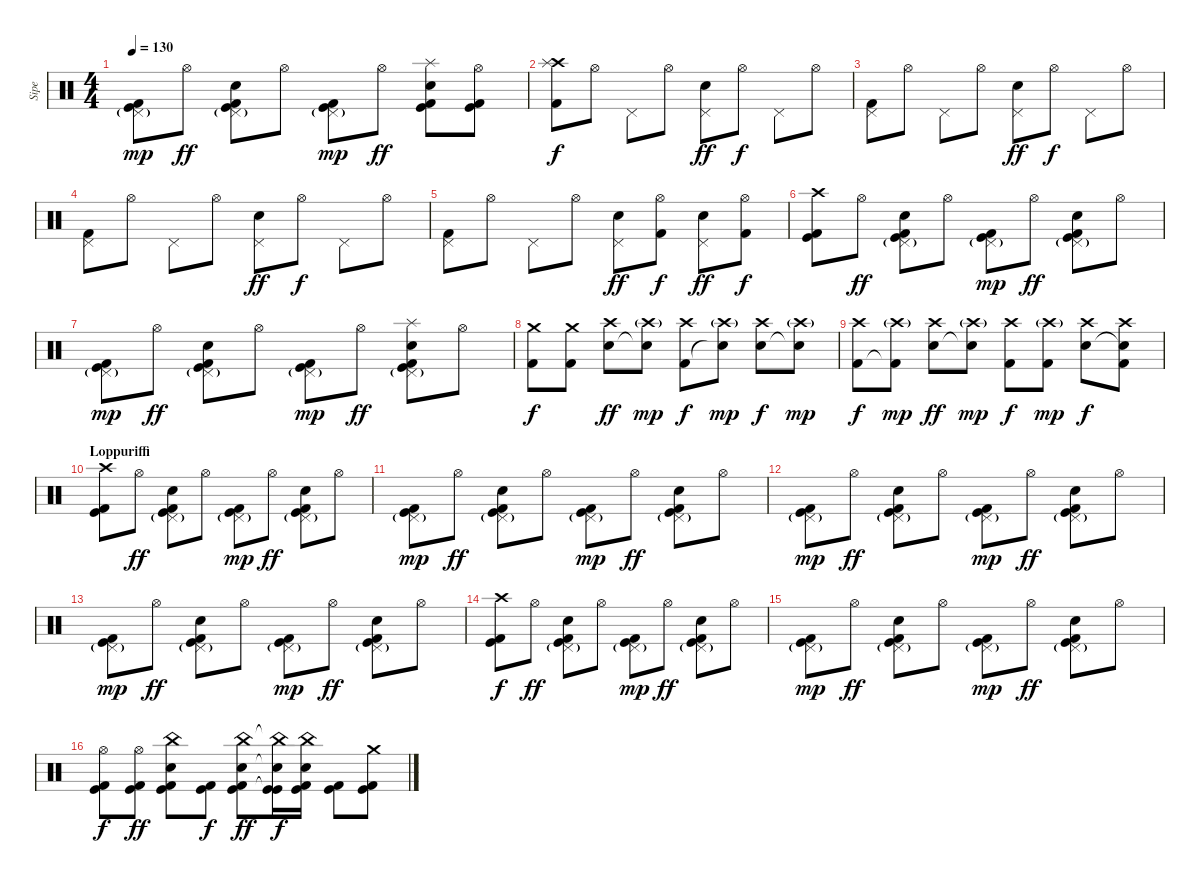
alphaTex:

\track ("Sipe" "Sipe") {instrument percussion}
\staff {score}
\articulation defaults
\ts (4 4)
\tempo 130
\clef neutral
\ks c
("Pedal Hi-Hat (hit)"{g} "Kick (hit)" "Kick (hit) 2").8{dy mp} "Hi-Hat (open)".8{dy ff} ("Pedal Hi-Hat (hit)"{g} "Electric Snare (hit)" "Kick (hit)" "Kick (hit) 2").8 "Hi-Hat (open)".8 ("Pedal Hi-Hat (hit)"{g} "Kick (hit)" "Kick (hit) 2").8{dy mp} "Hi-Hat (open)".8{dy ff} ("Splash (hit)" "Electric Snare (hit)" "Kick (hit)" "Kick (hit) 2").8 ("Hi-Hat (open)" "Kick (hit)" "Kick (hit) 2").8 |
("Crash high (hit)" "Splash (hit)" "Kick (hit) 2").8{dy f} "Hi-Hat (open)".8 "Pedal Hi-Hat (hit)".8 "Hi-Hat (open)".8 ("Pedal Hi-Hat (hit)" "Electric Snare (hit)").8{dy ff} "Hi-Hat (open)".8{dy f} "Pedal Hi-Hat (hit)".8 "Hi-Hat (open)".8 |
("Pedal Hi-Hat (hit)" "Kick (hit) 2").8 "Hi-Hat (open)".8 "Pedal Hi-Hat (hit)".8 "Hi-Hat (open)".8 ("Pedal Hi-Hat (hit)" "Electric Snare (hit)").8{dy ff} "Hi-Hat (open)".8{dy f} "Pedal Hi-Hat (hit)".8 "Hi-Hat (open)".8 |
("Pedal Hi-Hat (hit)" "Kick (hit) 2").8 "Hi-Hat (open)".8 "Pedal Hi-Hat (hit)".8 "Hi-Hat (open)".8 ("Pedal Hi-Hat (hit)" "Electric Snare (hit)").8{dy ff} "Hi-Hat (open)".8{dy f} "Pedal Hi-Hat (hit)".8 "Hi-Hat (open)".8 |
("Pedal Hi-Hat (hit)" "Kick (hit) 2").8 "Hi-Hat (open)".8 "Pedal Hi-Hat (hit)".8 "Hi-Hat (open)".8 ("Pedal Hi-Hat (hit)" "Electric Snare (hit)").8{dy ff} ("Hi-Hat (open)" "Kick (hit) 2").8{dy f} ("Pedal Hi-Hat (hit)" "Electric Snare (hit)").8{dy ff} ("Hi-Hat (open)" "Kick (hit) 2").8{dy f} |
("Crash high (hit)" "Kick (hit)" "Kick (hit) 2").8 "Hi-Hat (open)".8{dy ff} ("Pedal Hi-Hat (hit)"{g} "Electric Snare (hit)" "Kick (hit)" "Kick (hit) 2").8 "Hi-Hat (open)".8 ("Pedal Hi-Hat (hit)"{g} "Kick (hit)" "Kick (hit) 2").8{dy mp} "Hi-Hat (open)".8{dy ff} ("Pedal Hi-Hat (hit)"{g} "Electric Snare (hit)" "Kick (hit)" "Kick (hit) 2").8 "Hi-Hat (open)".8 |
("Pedal Hi-Hat (hit)"{g} "Kick (hit)" "Kick (hit) 2").8{dy mp} "Hi-Hat (open)".8{dy ff} ("Pedal Hi-Hat (hit)"{g} "Electric Snare (hit)" "Kick (hit)" "Kick (hit) 2").8 "Hi-Hat (open)".8 ("Pedal Hi-Hat (hit)"{g} "Kick (hit)" "Kick (hit) 2").8{dy mp} "Hi-Hat (open)".8{dy ff} ("Splash (hit)" "Pedal Hi-Hat (hit)"{g} "Electric Snare (hit)" "Kick (hit)" "Kick (hit) 2").8 "Hi-Hat (open)".8 |
("Crash medium (hit)" "Kick (hit) 2").8{dy f} ("Crash medium (hit)" "Kick (hit) 2").8 ("Crash high (hit)" "Electric Snare (hit)").8{dy ff} ("Crash high (hit)"{g} "Snare (hit)"{t}).8{dy mp} ("Crash high (hit)" "Kick (hit) 2").8{dy f} ("Crash high (hit)"{g} "Snare (hit)"{t}).8{dy mp} ("Crash high (hit)" "Electric Snare (hit)").8{dy f} ("Crash high (hit)"{g} "Snare (hit)"{t}).8{dy mp} |
("Crash high (hit)" "Kick (hit) 2").8{dy f} ("Crash high (hit)"{g} "Kick (hit) 2"{t}).8{dy mp} ("Crash high (hit)" "Electric Snare (hit)").8{dy ff} ("Crash high (hit)"{g} "Snare (hit)"{t}).8{dy mp} ("Crash high (hit)" "Kick (hit) 2").8{dy f} ("Crash high (hit)"{g} "Kick (hit) 2").8{dy mp} ("Crash high (hit)" "Electric Snare (hit)").8{dy f} ("Crash high (hit)" "Snare (hit)"{t} "Kick (hit) 2").8 |
\section ("" "Loppuriffi")
("Crash high (hit)" "Kick (hit)" "Kick (hit) 2").8 "Hi-Hat (open)".8{dy ff} ("Pedal Hi-Hat (hit)"{g} "Electric Snare (hit)" "Kick (hit)" "Kick (hit) 2").8 "Hi-Hat (open)".8 ("Pedal Hi-Hat (hit)"{g} "Kick (hit)" "Kick (hit) 2").8{dy mp} "Hi-Hat (open)".8{dy ff} ("Pedal Hi-Hat (hit)"{g} "Electric Snare (hit)" "Kick (hit)" "Kick (hit) 2").8 "Hi-Hat (open)".8 |
("Pedal Hi-Hat (hit)"{g} "Kick (hit)" "Kick (hit) 2").8{dy mp} "Hi-Hat (open)".8{dy ff} ("Pedal Hi-Hat (hit)"{g} "Electric Snare (hit)" "Kick (hit)" "Kick (hit) 2").8 "Hi-Hat (open)".8 ("Pedal Hi-Hat (hit)"{g} "Kick (hit)" "Kick (hit) 2").8{dy mp} "Hi-Hat (open)".8{dy ff} ("Pedal Hi-Hat (hit)"{g} "Electric Snare (hit)" "Kick (hit)" "Kick (hit) 2").8 "Hi-Hat (open)".8 |
("Pedal Hi-Hat (hit)"{g} "Kick (hit)" "Kick (hit) 2").8{dy mp} "Hi-Hat (open)".8{dy ff} ("Pedal Hi-Hat (hit)"{g} "Electric Snare (hit)" "Kick (hit)" "Kick (hit) 2").8 "Hi-Hat (open)".8 ("Pedal Hi-Hat (hit)"{g} "Kick (hit)" "Kick (hit) 2").8{dy mp} "Hi-Hat (open)".8{dy ff} ("Pedal Hi-Hat (hit)"{g} "Electric Snare (hit)" "Kick (hit)" "Kick (hit) 2").8 "Hi-Hat (open)".8 |
("Pedal Hi-Hat (hit)"{g} "Kick (hit)" "Kick (hit) 2").8{dy mp} "Hi-Hat (open)".8{dy ff} ("Pedal Hi-Hat (hit)"{g} "Electric Snare (hit)" "Kick (hit)" "Kick (hit) 2").8 "Hi-Hat (open)".8 ("Pedal Hi-Hat (hit)"{g} "Kick (hit)" "Kick (hit) 2").8{dy mp} "Hi-Hat (open)".8{dy ff} ("Pedal Hi-Hat (hit)"{g} "Electric Snare (hit)" "Kick (hit)" "Kick (hit) 2").8 "Hi-Hat (open)".8 |
("Crash high (hit)" "Kick (hit)" "Kick (hit) 2").8{dy f} "Hi-Hat (open)".8{dy ff} ("Pedal Hi-Hat (hit)"{g} "Electric Snare (hit)" "Kick (hit)" "Kick (hit) 2").8 "Hi-Hat (open)".8 ("Pedal Hi-Hat (hit)"{g} "Kick (hit)" "Kick (hit) 2").8{dy mp} "Hi-Hat (open)".8{dy ff} ("Pedal Hi-Hat (hit)"{g} "Electric Snare (hit)" "Kick (hit)" "Kick (hit) 2").8 "Hi-Hat (open)".8 |
("Pedal Hi-Hat (hit)"{g} "Kick (hit)" "Kick (hit) 2").8{dy mp} "Hi-Hat (open)".8{dy ff} ("Pedal Hi-Hat (hit)"{g} "Electric Snare (hit)" "Kick (hit)" "Kick (hit) 2").8 "Hi-Hat (open)".8 ("Pedal Hi-Hat (hit)"{g} "Kick (hit)" "Kick (hit) 2").8{dy mp} "Hi-Hat (open)".8{dy ff} ("Pedal Hi-Hat (hit)"{g} "Electric Snare (hit)" "Kick (hit)" "Kick (hit) 2").8 "Hi-Hat (open)".8 |
("Hi-Hat (open)" "Kick (hit)" "Kick (hit) 2").8{dy f} ("Hi-Hat (open)" "Kick (hit)" "Kick (hit) 2").8{dy ff} ("China (hit)" "Electric Snare (hit)" "Kick (hit)" "Kick (hit) 2").8 ("Kick (hit)" "Kick (hit) 2").8{dy f} ("China (hit)" "Electric Snare (hit)" "Kick (hit)" "Kick (hit) 2").8{dy ff} ("China (hit)"{t} "Electric Snare (hit)"{t} "Kick (hit)"{t} "Kick (hit)").16{dy f} ("China (hit)" "Electric Snare (hit)" "Kick (hit)" "Kick (hit) 2").16 ("Kick (hit)" "Kick (hit) 2").8 ("Crash medium (hit)" "Kick (hit)" "Kick (hit) 2").8
